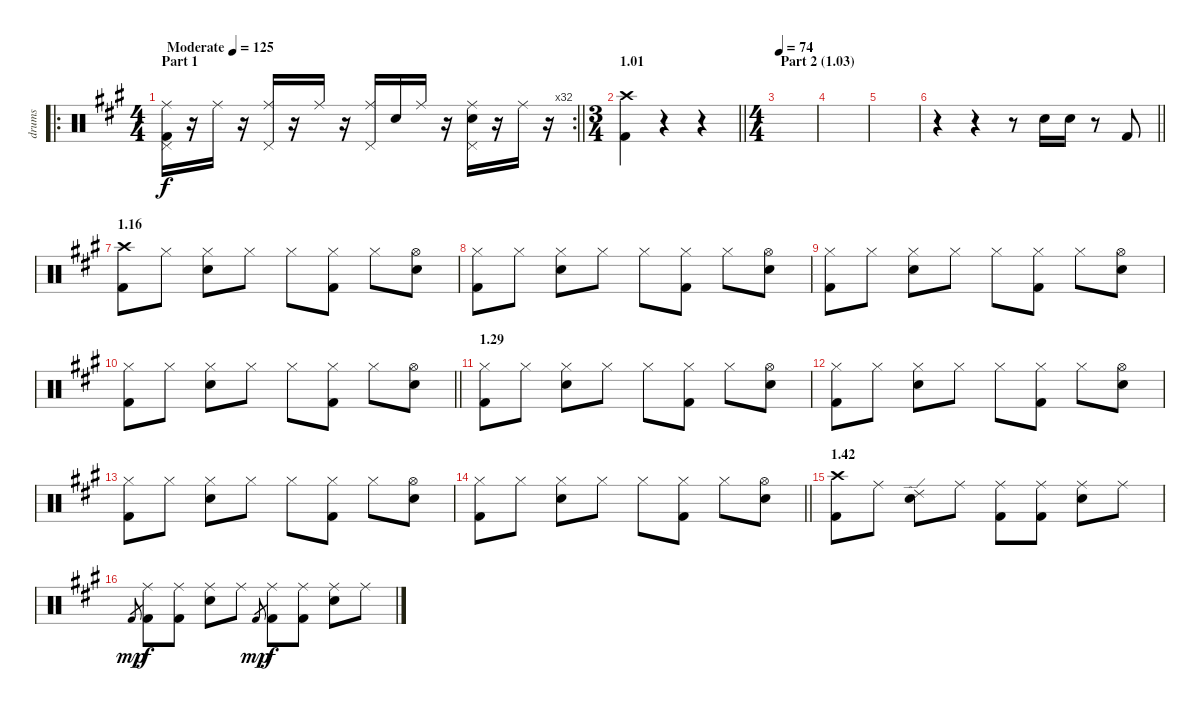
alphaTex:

\track ("drums" "drums") {instrument percussion}
\staff {score}
\articulation defaults
\ro
\rc 32
\ts (4 4)
\section ("" "Part 1")
\tempo (125 "Moderate")
\clef neutral
\barLineRight lightlight
\ks a
("Ride (middle)" "Pedal Hi-Hat (hit)" "Kick (hit) 2").16{dy f} r.16 "Ride (middle)".16 r.16 ("Ride (middle)" "Pedal Hi-Hat (hit)").16 r.16 "Ride (middle)".16 r.16 ("Ride (middle)" "Pedal Hi-Hat (hit)").16 "Electric Snare (hit)".16 "Ride (middle)".16 r.16 ("Ride (middle)" "Pedal Hi-Hat (hit)" "Electric Snare (hit)").16 r.16 "Ride (middle)".16 r.16 |
\ts (3 4)
\section ("" "1.01")
\barLineRight lightlight
("Crash high (hit)" "Kick (hit) 2").4 r.4 r.4 |
\ts (4 4)
\section ("" "Part 2 (1.03)")
\tempo 74
|
|
|
\barLineRight lightlight
r.4 r.4 r.8 "Electric Snare (hit)".16 "Electric Snare (hit)".16 r.8 "Kick (hit) 2".8 |
\section ("" "1.16")
("Crash high (hit)" "Kick (hit) 2").8 "Hi-Hat (closed)".8 ("Hi-Hat (closed)" "Electric Snare (hit)").8 "Hi-Hat (closed)".8 "Hi-Hat (closed)".8 ("Hi-Hat (closed)" "Kick (hit) 2").8 "Hi-Hat (closed)".8 ("Hi-Hat (open)" "Electric Snare (hit)").8 |
("Hi-Hat (closed)" "Kick (hit) 2").8 "Hi-Hat (closed)".8 ("Hi-Hat (closed)" "Electric Snare (hit)").8 "Hi-Hat (closed)".8 "Hi-Hat (closed)".8 ("Hi-Hat (closed)" "Kick (hit) 2").8 "Hi-Hat (closed)".8 ("Hi-Hat (open)" "Electric Snare (hit)").8 |
("Hi-Hat (closed)" "Kick (hit) 2").8 "Hi-Hat (closed)".8 ("Hi-Hat (closed)" "Electric Snare (hit)").8 "Hi-Hat (closed)".8 "Hi-Hat (closed)".8 ("Hi-Hat (closed)" "Kick (hit) 2").8 "Hi-Hat (closed)".8 ("Hi-Hat (open)" "Electric Snare (hit)").8 |
\barLineRight lightlight
("Hi-Hat (closed)" "Kick (hit) 2").8 "Hi-Hat (closed)".8 ("Hi-Hat (closed)" "Electric Snare (hit)").8 "Hi-Hat (closed)".8 "Hi-Hat (closed)".8 ("Hi-Hat (closed)" "Kick (hit) 2").8 "Hi-Hat (closed)".8 ("Hi-Hat (open)" "Electric Snare (hit)").8 |
\section ("" "1.29")
("Hi-Hat (closed)" "Kick (hit) 2").8 "Hi-Hat (closed)".8 ("Hi-Hat (closed)" "Electric Snare (hit)").8 "Hi-Hat (closed)".8 "Hi-Hat (closed)".8 ("Hi-Hat (closed)" "Kick (hit) 2").8 "Hi-Hat (closed)".8 ("Hi-Hat (open)" "Electric Snare (hit)").8 |
("Hi-Hat (closed)" "Kick (hit) 2").8 "Hi-Hat (closed)".8 ("Hi-Hat (closed)" "Electric Snare (hit)").8 "Hi-Hat (closed)".8 "Hi-Hat (closed)".8 ("Hi-Hat (closed)" "Kick (hit) 2").8 "Hi-Hat (closed)".8 ("Hi-Hat (open)" "Electric Snare (hit)").8 |
("Hi-Hat (closed)" "Kick (hit) 2").8 "Hi-Hat (closed)".8 ("Hi-Hat (closed)" "Electric Snare (hit)").8 "Hi-Hat (closed)".8 "Hi-Hat (closed)".8 ("Hi-Hat (closed)" "Kick (hit) 2").8 "Hi-Hat (closed)".8 ("Hi-Hat (open)" "Electric Snare (hit)").8 |
\barLineRight lightlight
("Hi-Hat (closed)" "Kick (hit) 2").8 "Hi-Hat (closed)".8 ("Hi-Hat (closed)" "Electric Snare (hit)").8 "Hi-Hat (closed)".8 "Hi-Hat (closed)".8 ("Hi-Hat (closed)" "Kick (hit) 2").8 "Hi-Hat (closed)".8 ("Hi-Hat (open)" "Electric Snare (hit)").8 |
\section ("" "1.42")
("Crash high (hit)" "Kick (hit) 2").8 "Ride (middle)".8 ("Ride (edge) 2" "Electric Snare (hit)").8 "Ride (middle)".8 ("Ride (middle)" "Kick (hit) 2").8 ("Ride (middle)" "Kick (hit) 2").8 ("Ride (middle)" "Electric Snare (hit)").8 "Ride (middle)".8 |
"Kick (hit) 2".8{gr dy mp} ("Ride (middle)" "Kick (hit) 2").8{dy f} ("Ride (middle)" "Kick (hit) 2").8 ("Ride (middle)" "Electric Snare (hit)").8 "Ride (middle)".8 "Kick (hit) 2".8{gr dy mp} ("Ride (middle)" "Kick (hit) 2").8{dy f} ("Ride (middle)" "Kick (hit) 2").8 ("Ride (middle)" "Electric Snare (hit)").8 "Ride (middle)".8
